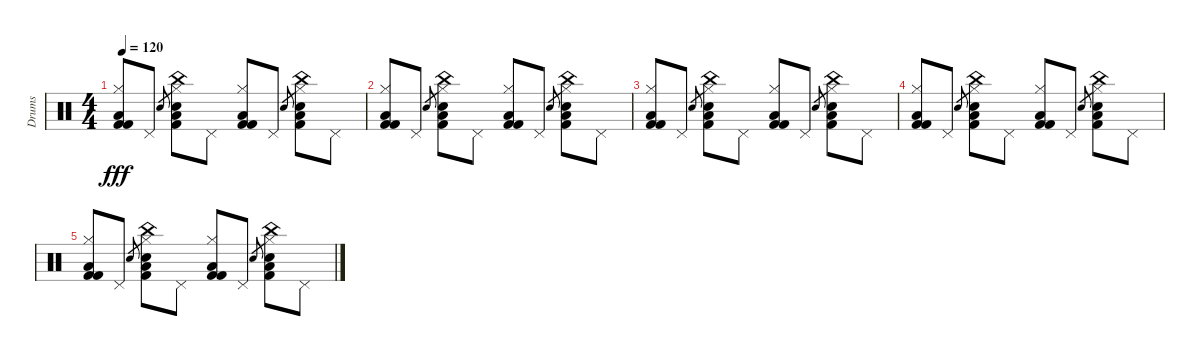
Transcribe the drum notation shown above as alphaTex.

\track ("Drums" "Drums") {instrument percussion}
\staff {score}
\articulation defaults
\ts (4 4)
\tempo 120
\clef neutral
\ks c
("Kick (hit) 2" "Hi-Hat (closed)" "Low Floor Tom (hit)" "Kick (hit) 2").8{dy fff} "Pedal Hi-Hat (hit)".8 "Hand Clap (hit)".8{gr} ("Kick (hit) 2" "Hi-Hat (closed)" "Electric Snare (hit)" "China (hit)" "Low Floor Tom (hit)").8 "Pedal Hi-Hat (hit)".8 ("Kick (hit) 2" "Hi-Hat (closed)" "Low Floor Tom (hit)" "Kick (hit) 2").8 "Pedal Hi-Hat (hit)".8 "Hand Clap (hit)".8{gr} ("Kick (hit) 2" "Hi-Hat (closed)" "Electric Snare (hit)" "China (hit)" "Low Floor Tom (hit)").8 "Pedal Hi-Hat (hit)".8 |
("Kick (hit) 2" "Hi-Hat (closed)" "Low Floor Tom (hit)" "Kick (hit) 2").8 "Pedal Hi-Hat (hit)".8 "Hand Clap (hit)".8{gr} ("Kick (hit) 2" "Hi-Hat (closed)" "Electric Snare (hit)" "China (hit)" "Low Floor Tom (hit)").8 "Pedal Hi-Hat (hit)".8 ("Kick (hit) 2" "Hi-Hat (closed)" "Low Floor Tom (hit)" "Kick (hit) 2").8 "Pedal Hi-Hat (hit)".8 "Hand Clap (hit)".8{gr} ("Kick (hit) 2" "Hi-Hat (closed)" "Electric Snare (hit)" "China (hit)" "Low Floor Tom (hit)").8 "Pedal Hi-Hat (hit)".8 |
("Kick (hit) 2" "Hi-Hat (closed)" "Low Floor Tom (hit)" "Kick (hit) 2").8 "Pedal Hi-Hat (hit)".8 "Hand Clap (hit)".8{gr} ("Kick (hit) 2" "Hi-Hat (closed)" "Electric Snare (hit)" "China (hit)" "Low Floor Tom (hit)").8 "Pedal Hi-Hat (hit)".8 ("Kick (hit) 2" "Hi-Hat (closed)" "Low Floor Tom (hit)" "Kick (hit) 2").8 "Pedal Hi-Hat (hit)".8 "Hand Clap (hit)".8{gr} ("Kick (hit) 2" "Hi-Hat (closed)" "Electric Snare (hit)" "China (hit)" "Low Floor Tom (hit)").8 "Pedal Hi-Hat (hit)".8 |
("Kick (hit) 2" "Hi-Hat (closed)" "Low Floor Tom (hit)" "Kick (hit) 2").8 "Pedal Hi-Hat (hit)".8 "Hand Clap (hit)".8{gr} ("Kick (hit) 2" "Hi-Hat (closed)" "Electric Snare (hit)" "China (hit)" "Low Floor Tom (hit)").8 "Pedal Hi-Hat (hit)".8 ("Kick (hit) 2" "Hi-Hat (closed)" "Low Floor Tom (hit)" "Kick (hit) 2").8 "Pedal Hi-Hat (hit)".8 "Hand Clap (hit)".8{gr} ("Kick (hit) 2" "Hi-Hat (closed)" "Electric Snare (hit)" "China (hit)" "Low Floor Tom (hit)").8 "Pedal Hi-Hat (hit)".8 |
("Kick (hit) 2" "Hi-Hat (closed)" "Low Floor Tom (hit)" "Kick (hit) 2").8 "Pedal Hi-Hat (hit)".8 "Hand Clap (hit)".8{gr} ("Kick (hit) 2" "Hi-Hat (closed)" "Electric Snare (hit)" "China (hit)" "Low Floor Tom (hit)").8 "Pedal Hi-Hat (hit)".8 ("Kick (hit) 2" "Hi-Hat (closed)" "Low Floor Tom (hit)" "Kick (hit) 2").8 "Pedal Hi-Hat (hit)".8 "Hand Clap (hit)".8{gr} ("Kick (hit) 2" "Hi-Hat (closed)" "Electric Snare (hit)" "China (hit)" "Low Floor Tom (hit)").8 "Pedal Hi-Hat (hit)".8
